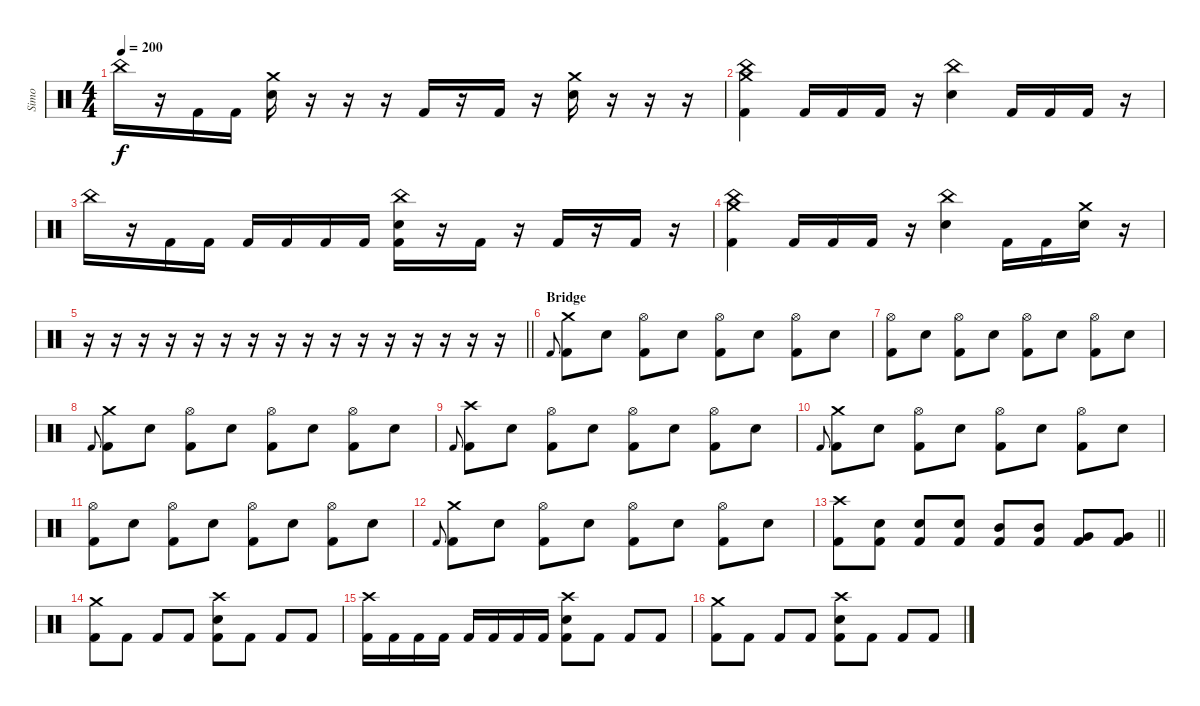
\track ("Simo" "Simo") {instrument percussion bank 121}
\staff {score}
\articulation defaults
\ts (4 4)
\tempo 200
\clef neutral
\ks c "China (hit)".16{dy f}
r.16 "Kick (hit) 2".16 "Kick (hit) 2".16 ("Electric Snare (hit)" "Crash medium (hit)").16 r.16 r.16 r.16 "Kick (hit) 2".16 r.16 "Kick (hit) 2".16 r.16 ("Electric Snare (hit)" "Crash medium (hit)").16 r.16 r.16 r.16 |
("Kick (hit) 2" "China (hit)" "Crash medium (hit)").4 "Kick (hit) 2".16 "Kick (hit) 2".16 "Kick (hit) 2".16 r.16 ("Electric Snare (hit)" "China (hit)").4 "Kick (hit) 2".16 "Kick (hit) 2".16 "Kick (hit) 2".16 r.16 |
"China (hit)".16 r.16 "Kick (hit) 2".16 "Kick (hit) 2".16 "Kick (hit) 2".16 "Kick (hit) 2".16 "Kick (hit) 2".16 "Kick (hit) 2".16 ("Kick (hit) 2" "China (hit)" "Electric Snare (hit)").16 r.16 "Kick (hit) 2".16 r.16 "Kick (hit) 2".16 r.16 "Kick (hit) 2".16 r.16 |
("Kick (hit) 2" "China (hit)" "Crash medium (hit)").4 "Kick (hit) 2".16 "Kick (hit) 2".16 "Kick (hit) 2".16 r.16 ("Electric Snare (hit)" "China (hit)").4 "Kick (hit) 2".16 "Kick (hit) 2".16 ("Electric Snare (hit)" "Crash medium (hit)").16 r.16 |
\barLineRight lightlight
r.16 r.16 r.16 r.16 r.16 r.16 r.16 r.16 r.16 r.16 r.16 r.16 r.16 r.16 r.16 r.16 |
\section ("" "Bridge ")
"Kick (hit) 2".8{gr onbeat} ("Kick (hit) 2" "Crash medium (hit)").8 "Electric Snare (hit)".8 ("Kick (hit) 2" "Hi-Hat (open)").8 "Electric Snare (hit)".8 ("Kick (hit) 2" "Hi-Hat (open)").8 "Electric Snare (hit)".8 ("Kick (hit) 2" "Hi-Hat (open)").8 "Electric Snare (hit)".8 |
("Kick (hit) 2" "Hi-Hat (open)").8 "Electric Snare (hit)".8 ("Kick (hit) 2" "Hi-Hat (open)").8 "Electric Snare (hit)".8 ("Kick (hit) 2" "Hi-Hat (open)").8 "Electric Snare (hit)".8 ("Kick (hit) 2" "Hi-Hat (open)").8 "Electric Snare (hit)".8 |
"Kick (hit) 2".8{gr onbeat} ("Kick (hit) 2" "Crash medium (hit)").8 "Electric Snare (hit)".8 ("Kick (hit) 2" "Hi-Hat (open)").8 "Electric Snare (hit)".8 ("Kick (hit) 2" "Hi-Hat (open)").8 "Electric Snare (hit)".8 ("Kick (hit) 2" "Hi-Hat (open)").8 "Electric Snare (hit)".8 |
"Kick (hit) 2".8{gr onbeat} ("Kick (hit) 2" "Crash high (hit)").8 "Electric Snare (hit)".8 ("Kick (hit) 2" "Hi-Hat (open)").8 "Electric Snare (hit)".8 ("Kick (hit) 2" "Hi-Hat (open)").8 "Electric Snare (hit)".8 ("Kick (hit) 2" "Hi-Hat (open)").8 "Electric Snare (hit)".8 |
"Kick (hit) 2".8{gr onbeat} ("Kick (hit) 2" "Crash medium (hit)").8 "Electric Snare (hit)".8 ("Kick (hit) 2" "Hi-Hat (open)").8 "Electric Snare (hit)".8 ("Kick (hit) 2" "Hi-Hat (open)").8 "Electric Snare (hit)".8 ("Kick (hit) 2" "Hi-Hat (open)").8 "Electric Snare (hit)".8 |
("Kick (hit) 2" "Hi-Hat (open)").8 "Electric Snare (hit)".8 ("Kick (hit) 2" "Hi-Hat (open)").8 "Electric Snare (hit)".8 ("Kick (hit) 2" "Hi-Hat (open)").8 "Electric Snare (hit)".8 ("Kick (hit) 2" "Hi-Hat (open)").8 "Electric Snare (hit)".8 |
"Kick (hit) 2".8{gr onbeat} ("Kick (hit) 2" "Crash medium (hit)").8 "Electric Snare (hit)".8 ("Kick (hit) 2" "Hi-Hat (open)").8 "Electric Snare (hit)".8 ("Kick (hit) 2" "Hi-Hat (open)").8 "Electric Snare (hit)".8 ("Kick (hit) 2" "Hi-Hat (open)").8 "Electric Snare (hit)".8 |
\barLineRight lightlight
("Kick (hit) 2" "Crash high (hit)").8 ("Kick (hit) 2" "Electric Snare (hit)").8 ("Kick (hit) 2" "Electric Snare (hit)").8 ("Kick (hit) 2" "Electric Snare (hit)").8 ("Kick (hit) 2" "Mid Tom (hit)").8 ("Kick (hit) 2" "Mid Tom (hit)").8 ("Kick (hit) 2" "Very Low Tom (hit)").8 ("Kick (hit) 2" "Very Low Tom (hit)").8 |
\section ("" "")
("Kick (hit) 2" "Crash medium (hit)").8 "Kick (hit) 2".8 "Kick (hit) 2".8 "Kick (hit) 2".8 ("Kick (hit) 2" "Crash high (hit)" "Electric Snare (hit)").8 "Kick (hit) 2".8 "Kick (hit) 2".8 "Kick (hit) 2".8 |
("Kick (hit) 2" "Crash high (hit)").16 "Kick (hit) 2".16 "Kick (hit) 2".16 "Kick (hit) 2".16 "Kick (hit) 2".16 "Kick (hit) 2".16 "Kick (hit) 2".16 "Kick (hit) 2".16 ("Kick (hit) 2" "Crash high (hit)" "Electric Snare (hit)").8 "Kick (hit) 2".8 "Kick (hit) 2".8 "Kick (hit) 2".8 |
("Kick (hit) 2" "Crash medium (hit)").8 "Kick (hit) 2".8 "Kick (hit) 2".8 "Kick (hit) 2".8 ("Kick (hit) 2" "Crash high (hit)" "Electric Snare (hit)").8 "Kick (hit) 2".8 "Kick (hit) 2".8 "Kick (hit) 2".8
